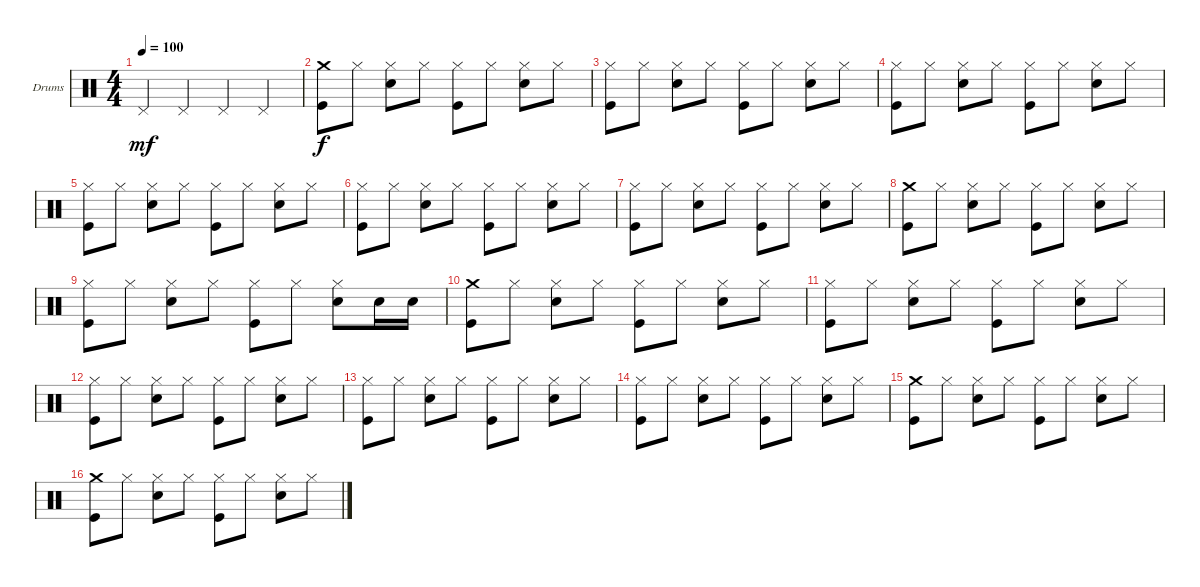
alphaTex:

\bracketExtendMode groupsimilarinstruments
\firstSystemTrackNameOrientation horizontal
\otherSystemsTrackNameOrientation horizontal
\track ("Drumkit" "Drums") {instrument percussion}
\staff {score}
\articulation defaults
\ts (4 4)
\beaming (8 2 2 2 2)
\tempo 100
\clef neutral
\ks c "Pedal Hi-Hat (hit)".4{dy mf} "Pedal Hi-Hat (hit)".4 "Pedal Hi-Hat (hit)".4 "Pedal Hi-Hat (hit)".4
|
("Kick (hit)" "Crash medium (hit)").8{dy f} "Hi-Hat (closed)".8 ("Snare (hit) 2" "Hi-Hat (closed)").8 "Hi-Hat (closed)".8 ("Hi-Hat (closed)" "Kick (hit)").8 "Hi-Hat (closed)".8 ("Snare (hit) 2" "Hi-Hat (closed)").8 "Hi-Hat (closed)".8 |
("Kick (hit)" "Hi-Hat (closed)").8 "Hi-Hat (closed)".8 ("Snare (hit) 2" "Hi-Hat (closed)").8 "Hi-Hat (closed)".8 ("Hi-Hat (closed)" "Kick (hit)").8 "Hi-Hat (closed)".8 ("Snare (hit) 2" "Hi-Hat (closed)").8 "Hi-Hat (closed)".8 |
("Kick (hit)" "Hi-Hat (closed)").8 "Hi-Hat (closed)".8 ("Snare (hit) 2" "Hi-Hat (closed)").8 "Hi-Hat (closed)".8 ("Hi-Hat (closed)" "Kick (hit)").8 "Hi-Hat (closed)".8 ("Snare (hit) 2" "Hi-Hat (closed)").8 "Hi-Hat (closed)".8 |
("Kick (hit)" "Hi-Hat (closed)").8 "Hi-Hat (closed)".8 ("Snare (hit) 2" "Hi-Hat (closed)").8 "Hi-Hat (closed)".8 ("Hi-Hat (closed)" "Kick (hit)").8 "Hi-Hat (closed)".8 ("Snare (hit) 2" "Hi-Hat (closed)").8 "Hi-Hat (closed)".8 |
("Kick (hit)" "Hi-Hat (closed)").8 "Hi-Hat (closed)".8 ("Snare (hit) 2" "Hi-Hat (closed)").8 "Hi-Hat (closed)".8 ("Hi-Hat (closed)" "Kick (hit)").8 "Hi-Hat (closed)".8 ("Snare (hit) 2" "Hi-Hat (closed)").8 "Hi-Hat (closed)".8 |
("Kick (hit)" "Hi-Hat (closed)").8 "Hi-Hat (closed)".8 ("Snare (hit) 2" "Hi-Hat (closed)").8 "Hi-Hat (closed)".8 ("Hi-Hat (closed)" "Kick (hit)").8 "Hi-Hat (closed)".8 ("Snare (hit) 2" "Hi-Hat (closed)").8 "Hi-Hat (closed)".8 |
("Kick (hit)" "Crash medium (hit)").8 "Hi-Hat (closed)".8 ("Snare (hit) 2" "Hi-Hat (closed)").8 "Hi-Hat (closed)".8 ("Hi-Hat (closed)" "Kick (hit)").8 "Hi-Hat (closed)".8 ("Snare (hit) 2" "Hi-Hat (closed)").8 "Hi-Hat (closed)".8 |
("Kick (hit)" "Hi-Hat (closed)").8 "Hi-Hat (closed)".8 ("Snare (hit) 2" "Hi-Hat (closed)").8 "Hi-Hat (closed)".8 ("Hi-Hat (closed)" "Kick (hit)").8 "Hi-Hat (closed)".8 ("Snare (hit) 2" "Hi-Hat (closed)").8 "Snare (hit) 2".16 "Snare (hit) 2".16 |
("Kick (hit)" "Crash medium (hit)").8 "Hi-Hat (closed)".8 ("Snare (hit) 2" "Hi-Hat (closed)").8 "Hi-Hat (closed)".8 ("Hi-Hat (closed)" "Kick (hit)").8 "Hi-Hat (closed)".8 ("Snare (hit) 2" "Hi-Hat (closed)").8 "Hi-Hat (closed)".8 |
("Kick (hit)" "Hi-Hat (closed)").8 "Hi-Hat (closed)".8 ("Snare (hit) 2" "Hi-Hat (closed)").8 "Hi-Hat (closed)".8 ("Hi-Hat (closed)" "Kick (hit)").8 "Hi-Hat (closed)".8 ("Snare (hit) 2" "Hi-Hat (closed)").8 "Hi-Hat (closed)".8 |
("Kick (hit)" "Hi-Hat (closed)").8 "Hi-Hat (closed)".8 ("Snare (hit) 2" "Hi-Hat (closed)").8 "Hi-Hat (closed)".8 ("Hi-Hat (closed)" "Kick (hit)").8 "Hi-Hat (closed)".8 ("Snare (hit) 2" "Hi-Hat (closed)").8 "Hi-Hat (closed)".8 |
("Kick (hit)" "Hi-Hat (closed)").8 "Hi-Hat (closed)".8 ("Snare (hit) 2" "Hi-Hat (closed)").8 "Hi-Hat (closed)".8 ("Hi-Hat (closed)" "Kick (hit)").8 "Hi-Hat (closed)".8 ("Snare (hit) 2" "Hi-Hat (closed)").8 "Hi-Hat (closed)".8 |
("Kick (hit)" "Hi-Hat (closed)").8 "Hi-Hat (closed)".8 ("Snare (hit) 2" "Hi-Hat (closed)").8 "Hi-Hat (closed)".8 ("Hi-Hat (closed)" "Kick (hit)").8 "Hi-Hat (closed)".8 ("Snare (hit) 2" "Hi-Hat (closed)").8 "Hi-Hat (closed)".8 |
("Kick (hit)" "Crash medium (hit)").8 "Hi-Hat (closed)".8 ("Snare (hit) 2" "Hi-Hat (closed)").8 "Hi-Hat (closed)".8 ("Hi-Hat (closed)" "Kick (hit)").8 "Hi-Hat (closed)".8 ("Snare (hit) 2" "Hi-Hat (closed)").8 "Hi-Hat (closed)".8 |
("Kick (hit)" "Crash medium (hit)").8 "Hi-Hat (closed)".8 ("Snare (hit) 2" "Hi-Hat (closed)").8 "Hi-Hat (closed)".8 ("Hi-Hat (closed)" "Kick (hit)").8 "Hi-Hat (closed)".8 ("Snare (hit) 2" "Hi-Hat (closed)").8 "Hi-Hat (closed)".8
